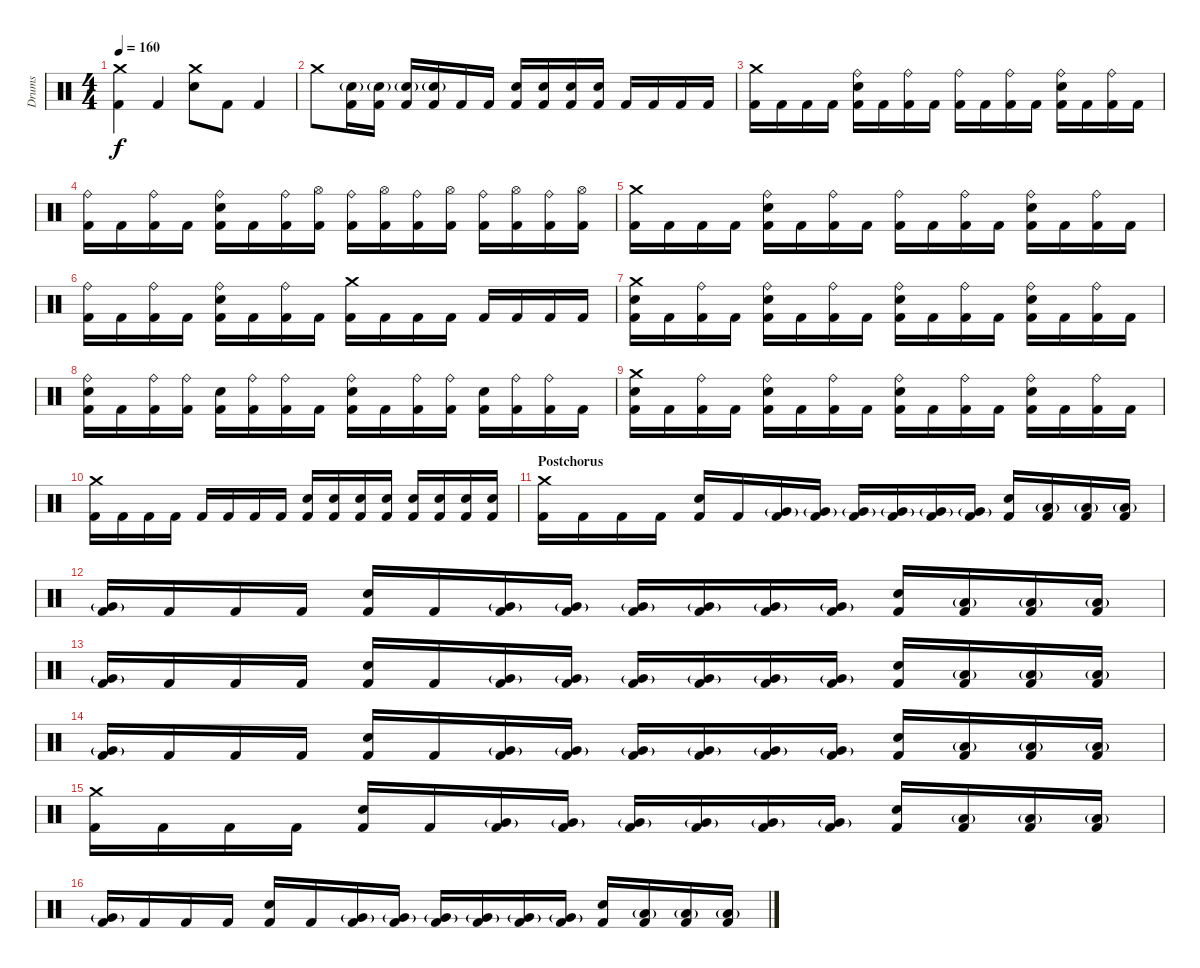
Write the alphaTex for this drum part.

\track ("Drums" "Drums") {instrument percussion}
\staff {score}
\articulation defaults
\ts (4 4)
\tempo 160
\clef neutral
\ks c
("Crash medium (hit)" "Kick (hit) 2").4{dy f} "Kick (hit) 2".4 ("Crash medium (hit)" "Snare (hit) 2").8 "Kick (hit) 2".8 "Kick (hit) 2".4 |
"Crash medium (hit)".8 ("Snare (hit) 2"{g} "Kick (hit) 2").16 ("Snare (hit) 2"{g} "Kick (hit) 2").16 ("Snare (hit) 2"{g} "Kick (hit) 2").16 ("Snare (hit) 2"{g} "Kick (hit) 2").16 "Kick (hit) 2".16 "Kick (hit) 2".16 ("Snare (hit) 2" "Kick (hit) 2").16 ("Snare (hit) 2" "Kick (hit) 2").16 ("Snare (hit) 2" "Kick (hit) 2").16 ("Snare (hit) 2" "Kick (hit) 2").16 "Kick (hit) 2".16 "Kick (hit) 2".16 "Kick (hit) 2".16 "Kick (hit) 2".16 |
("Crash medium (hit)" "Kick (hit) 2").16 "Kick (hit) 2".16 "Kick (hit) 2".16 "Kick (hit) 2".16 ("Ride (bell)" "Snare (hit) 2" "Kick (hit) 2").16 "Kick (hit) 2".16 ("Ride (bell)" "Kick (hit) 2").16 "Kick (hit) 2".16 ("Ride (bell)" "Kick (hit) 2").16 "Kick (hit) 2".16 ("Ride (bell)" "Kick (hit) 2").16 "Kick (hit) 2".16 ("Ride (bell)" "Snare (hit) 2" "Kick (hit) 2").16 "Kick (hit) 2".16 ("Ride (bell)" "Kick (hit) 2").16 "Kick (hit) 2".16 |
("Ride (bell)" "Kick (hit) 2").16 "Kick (hit) 2".16 ("Ride (bell)" "Kick (hit) 2").16 "Kick (hit) 2".16 ("Ride (bell)" "Snare (hit) 2" "Kick (hit) 2").16 "Kick (hit) 2".16 ("Ride (bell)" "Kick (hit) 2").16 ("Hi-Hat (open)" "Kick (hit) 2").16 ("Ride (bell)" "Kick (hit) 2").16 ("Hi-Hat (open)" "Kick (hit) 2").16 ("Ride (bell)" "Kick (hit) 2").16 ("Hi-Hat (open)" "Kick (hit) 2").16 ("Ride (bell)" "Kick (hit) 2").16 ("Hi-Hat (open)" "Kick (hit) 2").16 ("Ride (bell)" "Kick (hit) 2").16 ("Hi-Hat (open)" "Kick (hit) 2").16 |
("Crash medium (hit)" "Kick (hit) 2").16 "Kick (hit) 2".16 "Kick (hit) 2".16 "Kick (hit) 2".16 ("Ride (bell)" "Snare (hit) 2" "Kick (hit) 2").16 "Kick (hit) 2".16 ("Ride (bell)" "Kick (hit) 2").16 "Kick (hit) 2".16 ("Ride (bell)" "Kick (hit) 2").16 "Kick (hit) 2".16 ("Ride (bell)" "Kick (hit) 2").16 "Kick (hit) 2".16 ("Ride (bell)" "Snare (hit) 2" "Kick (hit) 2").16 "Kick (hit) 2".16 ("Ride (bell)" "Kick (hit) 2").16 "Kick (hit) 2".16 |
("Ride (bell)" "Kick (hit) 2").16 "Kick (hit) 2".16 ("Ride (bell)" "Kick (hit) 2").16 "Kick (hit) 2".16 ("Ride (bell)" "Snare (hit) 2" "Kick (hit) 2").16 "Kick (hit) 2".16 ("Ride (bell)" "Kick (hit) 2").16 "Kick (hit) 2".16 ("Crash medium (hit)" "Kick (hit) 2").16 "Kick (hit) 2".16 "Kick (hit) 2".16 "Kick (hit) 2".16 "Kick (hit) 2".16 "Kick (hit) 2".16 "Kick (hit) 2".16 "Kick (hit) 2".16 |
("Crash medium (hit)" "Snare (hit) 2" "Kick (hit) 2").16 "Kick (hit) 2".16 ("Ride (bell)" "Kick (hit) 2").16 "Kick (hit) 2".16 ("Ride (bell)" "Snare (hit) 2" "Kick (hit) 2").16 "Kick (hit) 2".16 ("Ride (bell)" "Kick (hit) 2").16 "Kick (hit) 2".16 ("Ride (bell)" "Snare (hit) 2" "Kick (hit) 2").16 "Kick (hit) 2".16 ("Ride (bell)" "Kick (hit) 2").16 "Kick (hit) 2".16 ("Ride (bell)" "Snare (hit) 2" "Kick (hit) 2").16 "Kick (hit) 2".16 ("Ride (bell)" "Kick (hit) 2").16 "Kick (hit) 2".16 |
("Ride (bell)" "Snare (hit) 2" "Kick (hit) 2").16 "Kick (hit) 2".16 ("Ride (bell)" "Kick (hit) 2").16 ("Ride (bell)" "Kick (hit) 2").16 ("Snare (hit) 2" "Kick (hit) 2").16 ("Ride (bell)" "Kick (hit) 2").16 ("Ride (bell)" "Kick (hit) 2").16 "Kick (hit) 2".16 ("Ride (bell)" "Snare (hit) 2" "Kick (hit) 2").16 "Kick (hit) 2".16 ("Ride (bell)" "Kick (hit) 2").16 ("Ride (bell)" "Kick (hit) 2").16 ("Snare (hit) 2" "Kick (hit) 2").16 ("Ride (bell)" "Kick (hit) 2").16 ("Ride (bell)" "Kick (hit) 2").16 "Kick (hit) 2".16 |
("Crash medium (hit)" "Snare (hit) 2" "Kick (hit) 2").16 "Kick (hit) 2".16 ("Ride (bell)" "Kick (hit) 2").16 "Kick (hit) 2".16 ("Ride (bell)" "Snare (hit) 2" "Kick (hit) 2").16 "Kick (hit) 2".16 ("Ride (bell)" "Kick (hit) 2").16 "Kick (hit) 2".16 ("Ride (bell)" "Snare (hit) 2" "Kick (hit) 2").16 "Kick (hit) 2".16 ("Ride (bell)" "Kick (hit) 2").16 "Kick (hit) 2".16 ("Ride (bell)" "Snare (hit) 2" "Kick (hit) 2").16 "Kick (hit) 2".16 ("Ride (bell)" "Kick (hit) 2").16 "Kick (hit) 2".16 |
("Crash medium (hit)" "Kick (hit) 2").16 "Kick (hit) 2".16 "Kick (hit) 2".16 "Kick (hit) 2".16 "Kick (hit) 2".16 "Kick (hit) 2".16 "Kick (hit) 2".16 "Kick (hit) 2".16 ("Snare (hit) 2" "Kick (hit) 2").16 ("Snare (hit) 2" "Kick (hit) 2").16 ("Snare (hit) 2" "Kick (hit) 2").16 ("Snare (hit) 2" "Kick (hit) 2").16 ("Snare (hit) 2" "Kick (hit) 2").16 ("Snare (hit) 2" "Kick (hit) 2").16 ("Snare (hit) 2" "Kick (hit) 2").16 ("Snare (hit) 2" "Kick (hit) 2").16 |
\section ("" "Postchorus")
("Crash medium (hit)" "Kick (hit) 2").16 "Kick (hit) 2".16 "Kick (hit) 2".16 "Kick (hit) 2".16 ("Snare (hit) 2" "Kick (hit) 2").16 "Kick (hit) 2".16 ("Very Low Tom (hit)"{g} "Kick (hit) 2").16 ("Very Low Tom (hit)"{g} "Kick (hit) 2").16 ("Very Low Tom (hit)"{g} "Kick (hit) 2").16 ("Very Low Tom (hit)"{g} "Kick (hit) 2").16 ("Very Low Tom (hit)"{g} "Kick (hit) 2").16 ("Very Low Tom (hit)"{g} "Kick (hit) 2").16 ("Snare (hit) 2" "Kick (hit) 2").16 ("Low Tom (hit)"{g} "Kick (hit) 2").16 ("Low Tom (hit)"{g} "Kick (hit) 2").16 ("Low Tom (hit)"{g} "Kick (hit) 2").16 |
("Very Low Tom (hit)"{g} "Kick (hit) 2").16 "Kick (hit) 2".16 "Kick (hit) 2".16 "Kick (hit) 2".16 ("Snare (hit) 2" "Kick (hit) 2").16 "Kick (hit) 2".16 ("Very Low Tom (hit)"{g} "Kick (hit) 2").16 ("Very Low Tom (hit)"{g} "Kick (hit) 2").16 ("Very Low Tom (hit)"{g} "Kick (hit) 2").16 ("Very Low Tom (hit)"{g} "Kick (hit) 2").16 ("Very Low Tom (hit)"{g} "Kick (hit) 2").16 ("Very Low Tom (hit)"{g} "Kick (hit) 2").16 ("Snare (hit) 2" "Kick (hit) 2").16 ("Low Tom (hit)"{g} "Kick (hit) 2").16 ("Low Tom (hit)"{g} "Kick (hit) 2").16 ("Low Tom (hit)"{g} "Kick (hit) 2").16 |
("Very Low Tom (hit)"{g} "Kick (hit) 2").16 "Kick (hit) 2".16 "Kick (hit) 2".16 "Kick (hit) 2".16 ("Snare (hit) 2" "Kick (hit) 2").16 "Kick (hit) 2".16 ("Very Low Tom (hit)"{g} "Kick (hit) 2").16 ("Very Low Tom (hit)"{g} "Kick (hit) 2").16 ("Very Low Tom (hit)"{g} "Kick (hit) 2").16 ("Very Low Tom (hit)"{g} "Kick (hit) 2").16 ("Very Low Tom (hit)"{g} "Kick (hit) 2").16 ("Very Low Tom (hit)"{g} "Kick (hit) 2").16 ("Snare (hit) 2" "Kick (hit) 2").16 ("Low Tom (hit)"{g} "Kick (hit) 2").16 ("Low Tom (hit)"{g} "Kick (hit) 2").16 ("Low Tom (hit)"{g} "Kick (hit) 2").16 |
("Very Low Tom (hit)"{g} "Kick (hit) 2").16 "Kick (hit) 2".16 "Kick (hit) 2".16 "Kick (hit) 2".16 ("Snare (hit) 2" "Kick (hit) 2").16 "Kick (hit) 2".16 ("Very Low Tom (hit)"{g} "Kick (hit) 2").16 ("Very Low Tom (hit)"{g} "Kick (hit) 2").16 ("Very Low Tom (hit)"{g} "Kick (hit) 2").16 ("Very Low Tom (hit)"{g} "Kick (hit) 2").16 ("Very Low Tom (hit)"{g} "Kick (hit) 2").16 ("Very Low Tom (hit)"{g} "Kick (hit) 2").16 ("Snare (hit) 2" "Kick (hit) 2").16 ("Low Tom (hit)"{g} "Kick (hit) 2").16 ("Low Tom (hit)"{g} "Kick (hit) 2").16 ("Low Tom (hit)"{g} "Kick (hit) 2").16 |
("Crash medium (hit)" "Kick (hit) 2").16 "Kick (hit) 2".16 "Kick (hit) 2".16 "Kick (hit) 2".16 ("Snare (hit) 2" "Kick (hit) 2").16 "Kick (hit) 2".16 ("Very Low Tom (hit)"{g} "Kick (hit) 2").16 ("Very Low Tom (hit)"{g} "Kick (hit) 2").16 ("Very Low Tom (hit)"{g} "Kick (hit) 2").16 ("Very Low Tom (hit)"{g} "Kick (hit) 2").16 ("Very Low Tom (hit)"{g} "Kick (hit) 2").16 ("Very Low Tom (hit)"{g} "Kick (hit) 2").16 ("Snare (hit) 2" "Kick (hit) 2").16 ("Low Tom (hit)"{g} "Kick (hit) 2").16 ("Low Tom (hit)"{g} "Kick (hit) 2").16 ("Low Tom (hit)"{g} "Kick (hit) 2").16 |
("Very Low Tom (hit)"{g} "Kick (hit) 2").16 "Kick (hit) 2".16 "Kick (hit) 2".16 "Kick (hit) 2".16 ("Snare (hit) 2" "Kick (hit) 2").16 "Kick (hit) 2".16 ("Very Low Tom (hit)"{g} "Kick (hit) 2").16 ("Very Low Tom (hit)"{g} "Kick (hit) 2").16 ("Very Low Tom (hit)"{g} "Kick (hit) 2").16 ("Very Low Tom (hit)"{g} "Kick (hit) 2").16 ("Very Low Tom (hit)"{g} "Kick (hit) 2").16 ("Very Low Tom (hit)"{g} "Kick (hit) 2").16 ("Snare (hit) 2" "Kick (hit) 2").16 ("Low Tom (hit)"{g} "Kick (hit) 2").16 ("Low Tom (hit)"{g} "Kick (hit) 2").16 ("Low Tom (hit)"{g} "Kick (hit) 2").16
